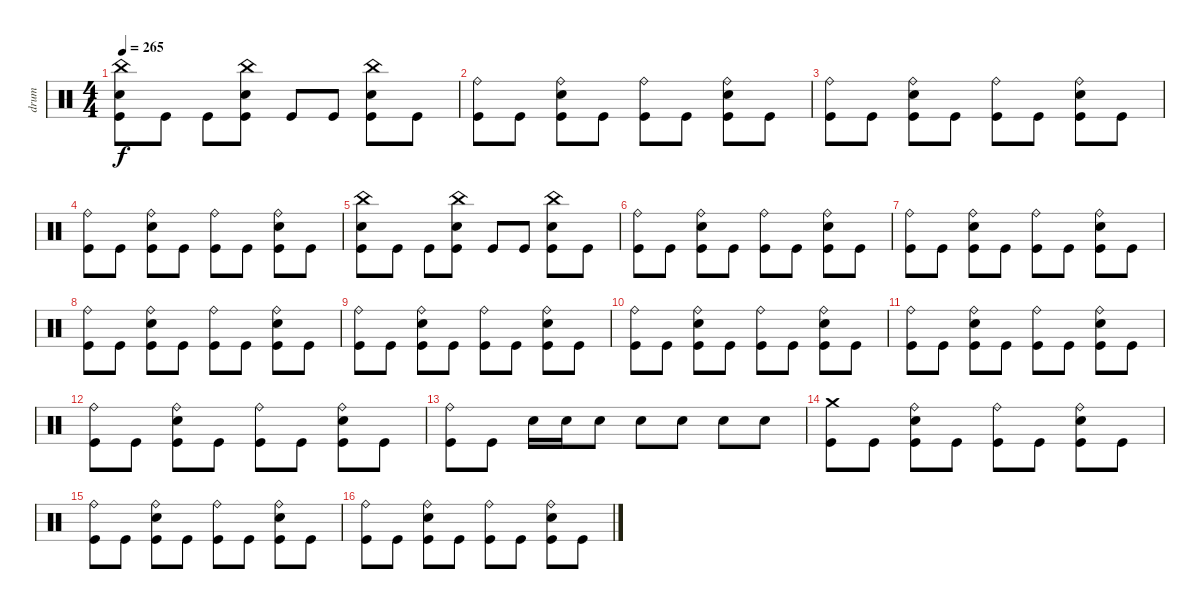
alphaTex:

\track ("drum" "drum") {instrument percussion}
\staff {score}
\articulation defaults
\ts (4 4)
\tempo 265
\clef neutral
\ks c
("Kick (hit)" "Electric Snare (hit)" "China (hit)").8{dy f} "Kick (hit)".8 "Kick (hit)".8 ("Kick (hit)" "Electric Snare (hit)" "China (hit)").8 "Kick (hit)".8 "Kick (hit)".8 ("Kick (hit)" "Electric Snare (hit)" "China (hit)").8 "Kick (hit)".8 |
("Kick (hit)" "Ride (bell)").8 "Kick (hit)".8 ("Kick (hit)" "Electric Snare (hit)" "Ride (bell)").8 "Kick (hit)".8 ("Kick (hit)" "Ride (bell)").8 "Kick (hit)".8 ("Kick (hit)" "Electric Snare (hit)" "Ride (bell)").8 "Kick (hit)".8 |
("Kick (hit)" "Ride (bell)").8 "Kick (hit)".8 ("Kick (hit)" "Electric Snare (hit)" "Ride (bell)").8 "Kick (hit)".8 ("Kick (hit)" "Ride (bell)").8 "Kick (hit)".8 ("Kick (hit)" "Electric Snare (hit)" "Ride (bell)").8 "Kick (hit)".8 |
("Kick (hit)" "Ride (bell)").8 "Kick (hit)".8 ("Kick (hit)" "Electric Snare (hit)" "Ride (bell)").8 "Kick (hit)".8 ("Kick (hit)" "Ride (bell)").8 "Kick (hit)".8 ("Kick (hit)" "Electric Snare (hit)" "Ride (bell)").8 "Kick (hit)".8 |
("Kick (hit)" "Electric Snare (hit)" "China (hit)").8 "Kick (hit)".8 "Kick (hit)".8 ("Kick (hit)" "Electric Snare (hit)" "China (hit)").8 "Kick (hit)".8 "Kick (hit)".8 ("Kick (hit)" "Electric Snare (hit)" "China (hit)").8 "Kick (hit)".8 |
("Kick (hit)" "Ride (bell)").8 "Kick (hit)".8 ("Kick (hit)" "Electric Snare (hit)" "Ride (bell)").8 "Kick (hit)".8 ("Kick (hit)" "Ride (bell)").8 "Kick (hit)".8 ("Kick (hit)" "Electric Snare (hit)" "Ride (bell)").8 "Kick (hit)".8 |
("Kick (hit)" "Ride (bell)").8 "Kick (hit)".8 ("Kick (hit)" "Electric Snare (hit)" "Ride (bell)").8 "Kick (hit)".8 ("Kick (hit)" "Ride (bell)").8 "Kick (hit)".8 ("Kick (hit)" "Electric Snare (hit)" "Ride (bell)").8 "Kick (hit)".8 |
("Kick (hit)" "Ride (bell)").8 "Kick (hit)".8 ("Kick (hit)" "Electric Snare (hit)" "Ride (bell)").8 "Kick (hit)".8 ("Kick (hit)" "Ride (bell)").8 "Kick (hit)".8 ("Kick (hit)" "Electric Snare (hit)" "Ride (bell)").8 "Kick (hit)".8 |
("Kick (hit)" "Ride (bell)").8 "Kick (hit)".8 ("Kick (hit)" "Electric Snare (hit)" "Ride (bell)").8 "Kick (hit)".8 ("Kick (hit)" "Ride (bell)").8 "Kick (hit)".8 ("Kick (hit)" "Electric Snare (hit)" "Ride (bell)").8 "Kick (hit)".8 |
("Kick (hit)" "Ride (bell)").8 "Kick (hit)".8 ("Kick (hit)" "Electric Snare (hit)" "Ride (bell)").8 "Kick (hit)".8 ("Kick (hit)" "Ride (bell)").8 "Kick (hit)".8 ("Kick (hit)" "Electric Snare (hit)" "Ride (bell)").8 "Kick (hit)".8 |
("Kick (hit)" "Ride (bell)").8 "Kick (hit)".8 ("Kick (hit)" "Electric Snare (hit)" "Ride (bell)").8 "Kick (hit)".8 ("Kick (hit)" "Ride (bell)").8 "Kick (hit)".8 ("Kick (hit)" "Electric Snare (hit)" "Ride (bell)").8 "Kick (hit)".8 |
("Kick (hit)" "Ride (bell)").8 "Kick (hit)".8 ("Kick (hit)" "Electric Snare (hit)" "Ride (bell)").8 "Kick (hit)".8 ("Kick (hit)" "Ride (bell)").8 "Kick (hit)".8 ("Kick (hit)" "Electric Snare (hit)" "Ride (bell)").8 "Kick (hit)".8 |
("Kick (hit)" "Ride (bell)").8 "Kick (hit)".8 "Electric Snare (hit)".16 "Electric Snare (hit)".16 "Electric Snare (hit)".8 "Electric Snare (hit)".8 "Electric Snare (hit)".8 "Electric Snare (hit)".8 "Electric Snare (hit)".8 |
("Kick (hit)" "Crash medium (hit)").8 "Kick (hit)".8 ("Kick (hit)" "Electric Snare (hit)" "Ride (bell)").8 "Kick (hit)".8 ("Kick (hit)" "Ride (bell)").8 "Kick (hit)".8 ("Kick (hit)" "Electric Snare (hit)" "Ride (bell)").8 "Kick (hit)".8 |
("Kick (hit)" "Ride (bell)").8 "Kick (hit)".8 ("Kick (hit)" "Electric Snare (hit)" "Ride (bell)").8 "Kick (hit)".8 ("Kick (hit)" "Ride (bell)").8 "Kick (hit)".8 ("Kick (hit)" "Electric Snare (hit)" "Ride (bell)").8 "Kick (hit)".8 |
("Kick (hit)" "Ride (bell)").8 "Kick (hit)".8 ("Kick (hit)" "Electric Snare (hit)" "Ride (bell)").8 "Kick (hit)".8 ("Kick (hit)" "Ride (bell)").8 "Kick (hit)".8 ("Kick (hit)" "Electric Snare (hit)" "Ride (bell)").8 "Kick (hit)".8
